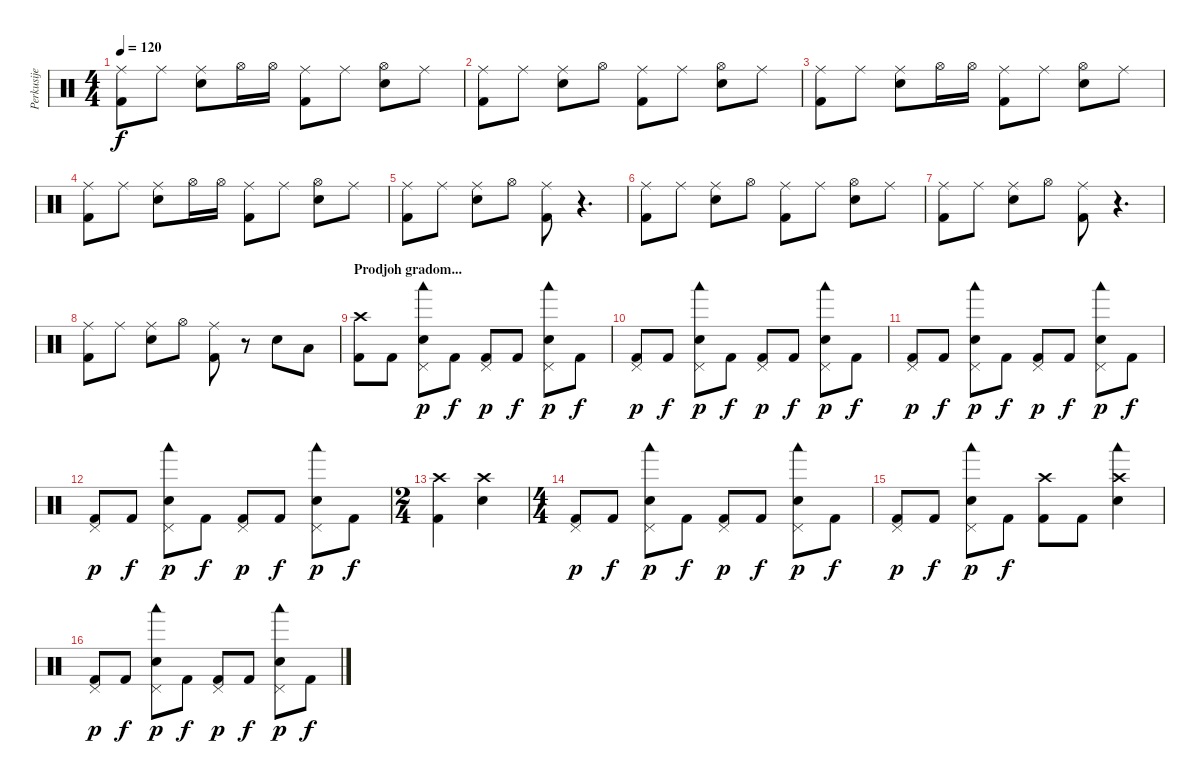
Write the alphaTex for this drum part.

\track ("Perkusije" "Perkusije") {instrument percussion}
\staff {score}
\articulation defaults
\ts (4 4)
\tempo 120
\clef neutral
\ks c
("Ride (middle)" "Kick (hit) 2").8{dy f} "Ride (middle)".8 ("Ride (middle)" "Electric Snare (hit)").8 "Hi-Hat (open)".16 "Hi-Hat (open)".16 ("Ride (middle)" "Kick (hit) 2").8 "Ride (middle)".8 ("Hi-Hat (open)" "Electric Snare (hit)").8 "Ride (middle)".8 |
("Ride (middle)" "Kick (hit) 2").8 "Ride (middle)".8 ("Ride (middle)" "Electric Snare (hit)").8 "Hi-Hat (open)".8 ("Ride (middle)" "Kick (hit) 2").8 "Ride (middle)".8 ("Hi-Hat (open)" "Electric Snare (hit)").8 "Ride (middle)".8 |
("Ride (middle)" "Kick (hit) 2").8 "Ride (middle)".8 ("Ride (middle)" "Electric Snare (hit)").8 "Hi-Hat (open)".16 "Hi-Hat (open)".16 ("Ride (middle)" "Kick (hit) 2").8 "Ride (middle)".8 ("Hi-Hat (open)" "Electric Snare (hit)").8 "Ride (middle)".8 |
("Ride (middle)" "Kick (hit) 2").8 "Ride (middle)".8 ("Ride (middle)" "Electric Snare (hit)").8 "Hi-Hat (open)".16 "Hi-Hat (open)".16 ("Ride (middle)" "Kick (hit) 2").8 "Ride (middle)".8 ("Hi-Hat (open)" "Electric Snare (hit)").8 "Ride (middle)".8 |
("Ride (middle)" "Kick (hit) 2").8 "Ride (middle)".8 ("Ride (middle)" "Electric Snare (hit)").8 "Hi-Hat (open)".8 ("Ride (middle)" "Kick (hit) 2").8 r.4{d} |
("Ride (middle)" "Kick (hit) 2").8 "Ride (middle)".8 ("Ride (middle)" "Electric Snare (hit)").8 "Hi-Hat (open)".8 ("Ride (middle)" "Kick (hit) 2").8 "Ride (middle)".8 ("Hi-Hat (open)" "Electric Snare (hit)").8 "Ride (middle)".8 |
("Ride (middle)" "Kick (hit) 2").8 "Ride (middle)".8 ("Ride (middle)" "Electric Snare (hit)").8 "Hi-Hat (open)".8 ("Ride (middle)" "Kick (hit) 2").8 r.4{d} |
("Ride (middle)" "Kick (hit) 2").8 "Ride (middle)".8 ("Ride (middle)" "Electric Snare (hit)").8 "Hi-Hat (open)".8 ("Ride (middle)" "Kick (hit) 2").8 r.8 "Electric Snare (hit)".8 "Low Floor Tom (hit)".8 |
\section ("" "Prodjoh gradom...")
("Crash high (hit)" "Kick (hit) 2").8 "Kick (hit) 2".8 ("Pedal Hi-Hat (hit)" "Electric Snare (hit)" "Woodblock low (hit)").8{dy p} "Kick (hit) 2".8{dy f} ("Pedal Hi-Hat (hit)" "Kick (hit) 2").8{dy p} "Kick (hit) 2".8{dy f} ("Pedal Hi-Hat (hit)" "Electric Snare (hit)" "Woodblock low (hit)").8{dy p} "Kick (hit) 2".8{dy f} |
("Pedal Hi-Hat (hit)" "Kick (hit) 2").8{dy p} "Kick (hit) 2".8{dy f} ("Pedal Hi-Hat (hit)" "Electric Snare (hit)" "Woodblock low (hit)").8{dy p} "Kick (hit) 2".8{dy f} ("Pedal Hi-Hat (hit)" "Kick (hit) 2").8{dy p} "Kick (hit) 2".8{dy f} ("Pedal Hi-Hat (hit)" "Electric Snare (hit)" "Woodblock low (hit)").8{dy p} "Kick (hit) 2".8{dy f} |
("Pedal Hi-Hat (hit)" "Kick (hit) 2").8{dy p} "Kick (hit) 2".8{dy f} ("Pedal Hi-Hat (hit)" "Electric Snare (hit)" "Woodblock low (hit)").8{dy p} "Kick (hit) 2".8{dy f} ("Pedal Hi-Hat (hit)" "Kick (hit) 2").8{dy p} "Kick (hit) 2".8{dy f} ("Pedal Hi-Hat (hit)" "Electric Snare (hit)" "Woodblock low (hit)").8{dy p} "Kick (hit) 2".8{dy f} |
("Pedal Hi-Hat (hit)" "Kick (hit) 2").8{dy p} "Kick (hit) 2".8{dy f} ("Pedal Hi-Hat (hit)" "Electric Snare (hit)" "Woodblock low (hit)").8{dy p} "Kick (hit) 2".8{dy f} ("Pedal Hi-Hat (hit)" "Kick (hit) 2").8{dy p} "Kick (hit) 2".8{dy f} ("Pedal Hi-Hat (hit)" "Electric Snare (hit)" "Woodblock low (hit)").8{dy p} "Kick (hit) 2".8{dy f} |
\ts (2 4)
("Crash high (hit)" "Kick (hit) 2").4 ("Crash high (hit)" "Electric Snare (hit)").4 |
\ts (4 4)
("Pedal Hi-Hat (hit)" "Kick (hit) 2").8{dy p} "Kick (hit) 2".8{dy f} ("Pedal Hi-Hat (hit)" "Electric Snare (hit)" "Woodblock low (hit)").8{dy p} "Kick (hit) 2".8{dy f} ("Pedal Hi-Hat (hit)" "Kick (hit) 2").8{dy p} "Kick (hit) 2".8{dy f} ("Pedal Hi-Hat (hit)" "Electric Snare (hit)" "Woodblock low (hit)").8{dy p} "Kick (hit) 2".8{dy f} |
("Pedal Hi-Hat (hit)" "Kick (hit) 2").8{dy p} "Kick (hit) 2".8{dy f} ("Pedal Hi-Hat (hit)" "Electric Snare (hit)" "Woodblock low (hit)").8{dy p} "Kick (hit) 2".8{dy f} ("Crash high (hit)" "Kick (hit) 2").8 "Kick (hit) 2".8 ("Crash high (hit)" "Electric Snare (hit)" "Woodblock low (hit)").4 |
("Pedal Hi-Hat (hit)" "Kick (hit) 2").8{dy p} "Kick (hit) 2".8{dy f} ("Pedal Hi-Hat (hit)" "Electric Snare (hit)" "Woodblock low (hit)").8{dy p} "Kick (hit) 2".8{dy f} ("Pedal Hi-Hat (hit)" "Kick (hit) 2").8{dy p} "Kick (hit) 2".8{dy f} ("Pedal Hi-Hat (hit)" "Electric Snare (hit)" "Woodblock low (hit)").8{dy p} "Kick (hit) 2".8{dy f}
